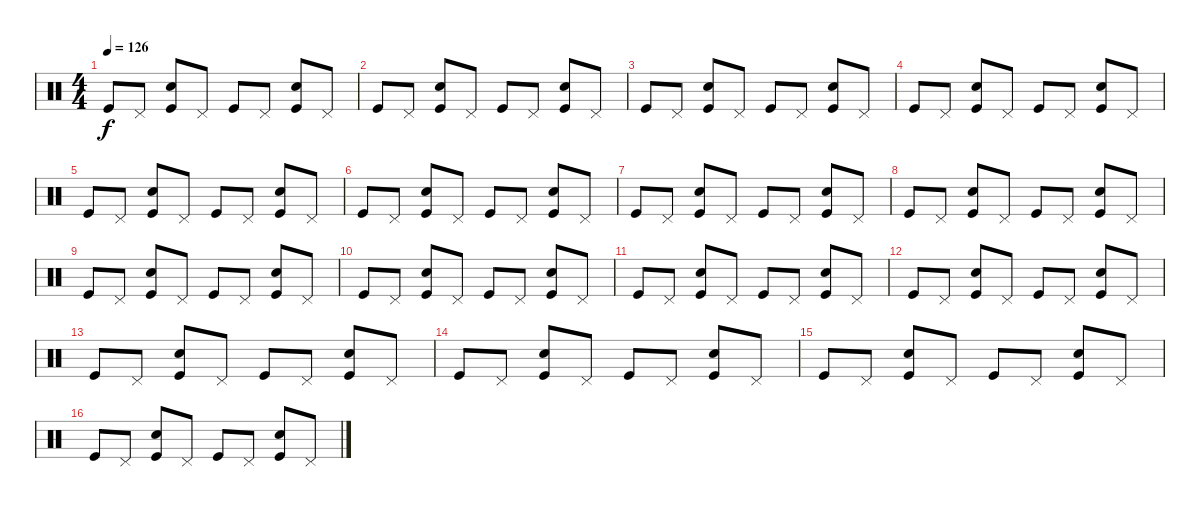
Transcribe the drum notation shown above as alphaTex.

\track "" {instrument percussion}
\staff {score}
\articulation defaults
\ts (4 4)
\tempo 126
\clef neutral
\ks c "Kick (hit)".8{dy f} "Pedal Hi-Hat (hit)".8
("Kick (hit)" "Hand Clap (hit)").8 "Pedal Hi-Hat (hit)".8 "Kick (hit)".8 "Pedal Hi-Hat (hit)".8 ("Kick (hit)" "Hand Clap (hit)").8 "Pedal Hi-Hat (hit)".8 |
"Kick (hit)".8 "Pedal Hi-Hat (hit)".8 ("Kick (hit)" "Hand Clap (hit)").8 "Pedal Hi-Hat (hit)".8 "Kick (hit)".8 "Pedal Hi-Hat (hit)".8 ("Kick (hit)" "Hand Clap (hit)").8 "Pedal Hi-Hat (hit)".8 |
"Kick (hit)".8 "Pedal Hi-Hat (hit)".8 ("Kick (hit)" "Hand Clap (hit)").8 "Pedal Hi-Hat (hit)".8 "Kick (hit)".8 "Pedal Hi-Hat (hit)".8 ("Kick (hit)" "Hand Clap (hit)").8 "Pedal Hi-Hat (hit)".8 |
"Kick (hit)".8 "Pedal Hi-Hat (hit)".8 ("Kick (hit)" "Hand Clap (hit)").8 "Pedal Hi-Hat (hit)".8 "Kick (hit)".8 "Pedal Hi-Hat (hit)".8 ("Kick (hit)" "Hand Clap (hit)").8 "Pedal Hi-Hat (hit)".8 |
"Kick (hit)".8 "Pedal Hi-Hat (hit)".8 ("Kick (hit)" "Hand Clap (hit)").8 "Pedal Hi-Hat (hit)".8 "Kick (hit)".8 "Pedal Hi-Hat (hit)".8 ("Kick (hit)" "Hand Clap (hit)").8 "Pedal Hi-Hat (hit)".8 |
"Kick (hit)".8 "Pedal Hi-Hat (hit)".8 ("Kick (hit)" "Hand Clap (hit)").8 "Pedal Hi-Hat (hit)".8 "Kick (hit)".8 "Pedal Hi-Hat (hit)".8 ("Kick (hit)" "Hand Clap (hit)").8 "Pedal Hi-Hat (hit)".8 |
"Kick (hit)".8 "Pedal Hi-Hat (hit)".8 ("Kick (hit)" "Hand Clap (hit)").8 "Pedal Hi-Hat (hit)".8 "Kick (hit)".8 "Pedal Hi-Hat (hit)".8 ("Kick (hit)" "Hand Clap (hit)").8 "Pedal Hi-Hat (hit)".8 |
"Kick (hit)".8 "Pedal Hi-Hat (hit)".8 ("Kick (hit)" "Hand Clap (hit)").8 "Pedal Hi-Hat (hit)".8 "Kick (hit)".8 "Pedal Hi-Hat (hit)".8 ("Kick (hit)" "Hand Clap (hit)").8 "Pedal Hi-Hat (hit)".8 |
"Kick (hit)".8 "Pedal Hi-Hat (hit)".8 ("Kick (hit)" "Hand Clap (hit)").8 "Pedal Hi-Hat (hit)".8 "Kick (hit)".8 "Pedal Hi-Hat (hit)".8 ("Kick (hit)" "Hand Clap (hit)").8 "Pedal Hi-Hat (hit)".8 |
"Kick (hit)".8 "Pedal Hi-Hat (hit)".8 ("Kick (hit)" "Hand Clap (hit)").8 "Pedal Hi-Hat (hit)".8 "Kick (hit)".8 "Pedal Hi-Hat (hit)".8 ("Kick (hit)" "Hand Clap (hit)").8 "Pedal Hi-Hat (hit)".8 |
"Kick (hit)".8 "Pedal Hi-Hat (hit)".8 ("Kick (hit)" "Hand Clap (hit)").8 "Pedal Hi-Hat (hit)".8 "Kick (hit)".8 "Pedal Hi-Hat (hit)".8 ("Kick (hit)" "Hand Clap (hit)").8 "Pedal Hi-Hat (hit)".8 |
"Kick (hit)".8 "Pedal Hi-Hat (hit)".8 ("Kick (hit)" "Hand Clap (hit)").8 "Pedal Hi-Hat (hit)".8 "Kick (hit)".8 "Pedal Hi-Hat (hit)".8 ("Kick (hit)" "Hand Clap (hit)").8 "Pedal Hi-Hat (hit)".8 |
"Kick (hit)".8 "Pedal Hi-Hat (hit)".8 ("Kick (hit)" "Hand Clap (hit)").8 "Pedal Hi-Hat (hit)".8 "Kick (hit)".8 "Pedal Hi-Hat (hit)".8 ("Kick (hit)" "Hand Clap (hit)").8 "Pedal Hi-Hat (hit)".8 |
"Kick (hit)".8 "Pedal Hi-Hat (hit)".8 ("Kick (hit)" "Hand Clap (hit)").8 "Pedal Hi-Hat (hit)".8 "Kick (hit)".8 "Pedal Hi-Hat (hit)".8 ("Kick (hit)" "Hand Clap (hit)").8 "Pedal Hi-Hat (hit)".8 |
"Kick (hit)".8 "Pedal Hi-Hat (hit)".8 ("Kick (hit)" "Hand Clap (hit)").8 "Pedal Hi-Hat (hit)".8 "Kick (hit)".8 "Pedal Hi-Hat (hit)".8 ("Kick (hit)" "Hand Clap (hit)").8 "Pedal Hi-Hat (hit)".8 |
"Kick (hit)".8 "Pedal Hi-Hat (hit)".8 ("Kick (hit)" "Hand Clap (hit)").8 "Pedal Hi-Hat (hit)".8 "Kick (hit)".8 "Pedal Hi-Hat (hit)".8 ("Kick (hit)" "Hand Clap (hit)").8 "Pedal Hi-Hat (hit)".8
